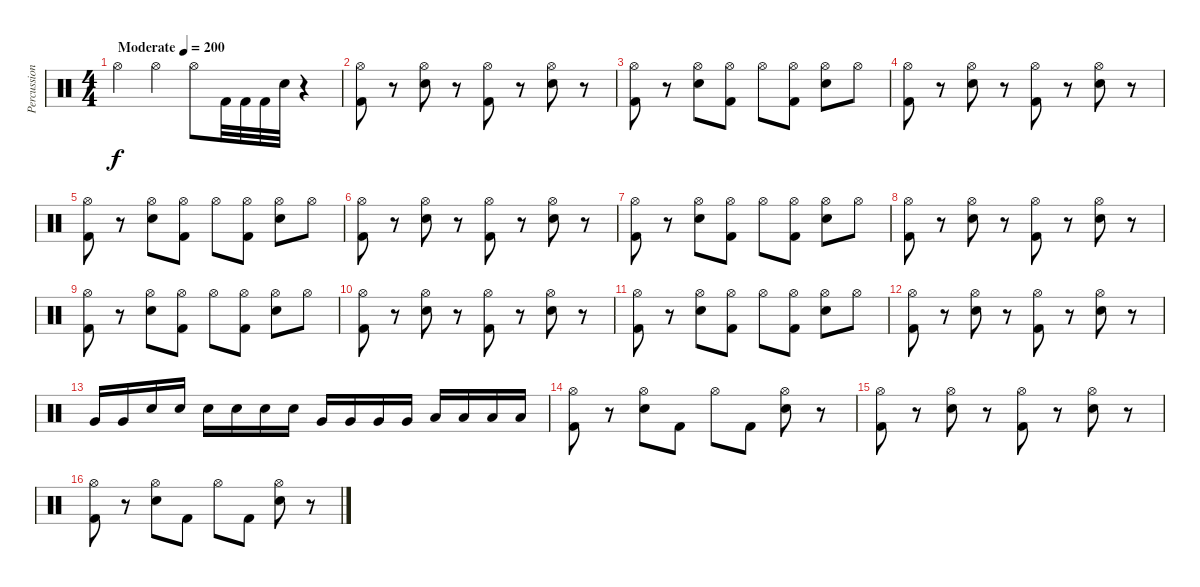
\track ("Percussion" "Percussion") {instrument percussion}
\staff {score}
\articulation defaults
\ts (4 4)
\tempo (200 "Moderate")
\clef neutral
\ks c "Hi-Hat (open)".4{dy f} "Hi-Hat (open)".4 "Hi-Hat (open)".8 "Kick (hit) 2".32 "Kick (hit) 2".32 "Kick (hit) 2".32 "Electric Snare (hit)".32
r.4 |
("Hi-Hat (open)" "Kick (hit) 2").8 r.8 ("Hi-Hat (open)" "Electric Snare (hit)").8 r.8 ("Hi-Hat (open)" "Kick (hit) 2").8 r.8 ("Hi-Hat (open)" "Electric Snare (hit)").8 r.8 |
("Hi-Hat (open)" "Kick (hit) 2").8 r.8 ("Hi-Hat (open)" "Electric Snare (hit)").8 ("Hi-Hat (open)" "Kick (hit) 2").8 "Hi-Hat (open)".8 ("Hi-Hat (open)" "Kick (hit) 2").8 ("Hi-Hat (open)" "Electric Snare (hit)").8 "Hi-Hat (open)".8 |
("Hi-Hat (open)" "Kick (hit) 2").8 r.8 ("Hi-Hat (open)" "Electric Snare (hit)").8 r.8 ("Hi-Hat (open)" "Kick (hit) 2").8 r.8 ("Hi-Hat (open)" "Electric Snare (hit)").8 r.8 |
("Hi-Hat (open)" "Kick (hit) 2").8 r.8 ("Hi-Hat (open)" "Electric Snare (hit)").8 ("Hi-Hat (open)" "Kick (hit) 2").8 "Hi-Hat (open)".8 ("Hi-Hat (open)" "Kick (hit) 2").8 ("Hi-Hat (open)" "Electric Snare (hit)").8 "Hi-Hat (open)".8 |
("Hi-Hat (open)" "Kick (hit) 2").8 r.8 ("Hi-Hat (open)" "Electric Snare (hit)").8 r.8 ("Hi-Hat (open)" "Kick (hit) 2").8 r.8 ("Hi-Hat (open)" "Electric Snare (hit)").8 r.8 |
("Hi-Hat (open)" "Kick (hit) 2").8 r.8 ("Hi-Hat (open)" "Electric Snare (hit)").8 ("Hi-Hat (open)" "Kick (hit) 2").8 "Hi-Hat (open)".8 ("Hi-Hat (open)" "Kick (hit) 2").8 ("Hi-Hat (open)" "Electric Snare (hit)").8 "Hi-Hat (open)".8 |
("Hi-Hat (open)" "Kick (hit) 2").8 r.8 ("Hi-Hat (open)" "Electric Snare (hit)").8 r.8 ("Hi-Hat (open)" "Kick (hit) 2").8 r.8 ("Hi-Hat (open)" "Electric Snare (hit)").8 r.8 |
("Hi-Hat (open)" "Kick (hit) 2").8 r.8 ("Hi-Hat (open)" "Electric Snare (hit)").8 ("Hi-Hat (open)" "Kick (hit) 2").8 "Hi-Hat (open)".8 ("Hi-Hat (open)" "Kick (hit) 2").8 ("Hi-Hat (open)" "Electric Snare (hit)").8 "Hi-Hat (open)".8 |
("Hi-Hat (open)" "Kick (hit) 2").8 r.8 ("Hi-Hat (open)" "Electric Snare (hit)").8 r.8 ("Hi-Hat (open)" "Kick (hit) 2").8 r.8 ("Hi-Hat (open)" "Electric Snare (hit)").8 r.8 |
("Hi-Hat (open)" "Kick (hit) 2").8 r.8 ("Hi-Hat (open)" "Electric Snare (hit)").8 ("Hi-Hat (open)" "Kick (hit) 2").8 "Hi-Hat (open)".8 ("Hi-Hat (open)" "Kick (hit) 2").8 ("Hi-Hat (open)" "Electric Snare (hit)").8 "Hi-Hat (open)".8 |
("Hi-Hat (open)" "Kick (hit) 2").8 r.8 ("Hi-Hat (open)" "Electric Snare (hit)").8 r.8 ("Hi-Hat (open)" "Kick (hit) 2").8 r.8 ("Hi-Hat (open)" "Electric Snare (hit)").8 r.8 |
"Very Low Tom (hit)".16 "Very Low Tom (hit)".16 "Electric Snare (hit)".16 "Electric Snare (hit)".16 "Electric Snare (hit)".16 "Electric Snare (hit)".16 "Electric Snare (hit)".16 "Electric Snare (hit)".16 "Very Low Tom (hit)".16 "Very Low Tom (hit)".16 "Very Low Tom (hit)".16 "Very Low Tom (hit)".16 "Low Floor Tom (hit)".16 "Low Floor Tom (hit)".16 "Low Floor Tom (hit)".16 "Low Floor Tom (hit)".16 |
("Hi-Hat (open)" "Kick (hit) 2").8 r.8 ("Hi-Hat (open)" "Electric Snare (hit)").8 "Kick (hit) 2".8 "Hi-Hat (open)".8 "Kick (hit) 2".8 ("Hi-Hat (open)" "Electric Snare (hit)").8 r.8 |
("Hi-Hat (open)" "Kick (hit) 2").8 r.8 ("Hi-Hat (open)" "Electric Snare (hit)").8 r.8 ("Hi-Hat (open)" "Kick (hit) 2").8 r.8 ("Hi-Hat (open)" "Electric Snare (hit)").8 r.8 |
("Hi-Hat (open)" "Kick (hit) 2").8 r.8 ("Hi-Hat (open)" "Electric Snare (hit)").8 "Kick (hit) 2".8 "Hi-Hat (open)".8 "Kick (hit) 2".8 ("Hi-Hat (open)" "Electric Snare (hit)").8 r.8
